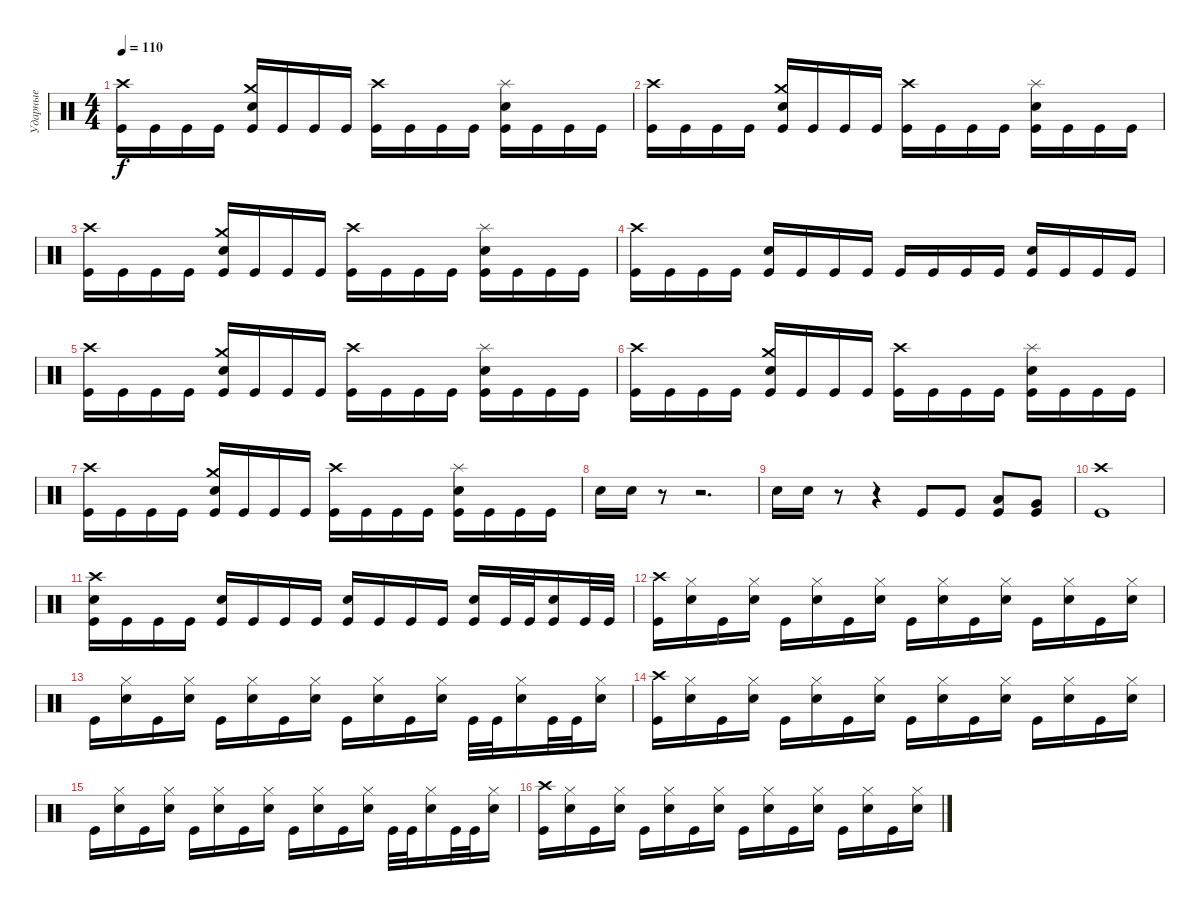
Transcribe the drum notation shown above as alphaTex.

\track ("Ударные" "Ударные") {instrument percussion}
\staff {score}
\articulation defaults
\ts (4 4)
\tempo 110
\clef neutral
\ks c
("Crash high (hit)" "Kick (hit)").16{dy f} "Kick (hit)".16 "Kick (hit)".16 "Kick (hit)".16 ("Crash medium (hit)" "Electric Snare (hit)" "Kick (hit)").16 "Kick (hit)".16 "Kick (hit)".16 "Kick (hit)".16 ("Crash high (hit)" "Kick (hit)").16 "Kick (hit)".16 "Kick (hit)".16 "Kick (hit)".16 ("Splash (hit)" "Electric Snare (hit)" "Kick (hit)").16 "Kick (hit)".16 "Kick (hit)".16 "Kick (hit)".16 |
("Crash high (hit)" "Kick (hit)").16 "Kick (hit)".16 "Kick (hit)".16 "Kick (hit)".16 ("Crash medium (hit)" "Electric Snare (hit)" "Kick (hit)").16 "Kick (hit)".16 "Kick (hit)".16 "Kick (hit)".16 ("Crash high (hit)" "Kick (hit)").16 "Kick (hit)".16 "Kick (hit)".16 "Kick (hit)".16 ("Splash (hit)" "Electric Snare (hit)" "Kick (hit)").16 "Kick (hit)".16 "Kick (hit)".16 "Kick (hit)".16 |
("Crash high (hit)" "Kick (hit)").16 "Kick (hit)".16 "Kick (hit)".16 "Kick (hit)".16 ("Crash medium (hit)" "Electric Snare (hit)" "Kick (hit)").16 "Kick (hit)".16 "Kick (hit)".16 "Kick (hit)".16 ("Crash high (hit)" "Kick (hit)").16 "Kick (hit)".16 "Kick (hit)".16 "Kick (hit)".16 ("Splash (hit)" "Electric Snare (hit)" "Kick (hit)").16 "Kick (hit)".16 "Kick (hit)".16 "Kick (hit)".16 |
("Crash high (hit)" "Kick (hit)").16 "Kick (hit)".16 "Kick (hit)".16 "Kick (hit)".16 ("Electric Snare (hit)" "Kick (hit)").16 "Kick (hit)".16 "Kick (hit)".16 "Kick (hit)".16 "Kick (hit)".16 "Kick (hit)".16 "Kick (hit)".16 "Kick (hit)".16 ("Electric Snare (hit)" "Kick (hit)").16 "Kick (hit)".16 "Kick (hit)".16 "Kick (hit)".16 |
("Crash high (hit)" "Kick (hit)").16 "Kick (hit)".16 "Kick (hit)".16 "Kick (hit)".16 ("Crash medium (hit)" "Electric Snare (hit)" "Kick (hit)").16 "Kick (hit)".16 "Kick (hit)".16 "Kick (hit)".16 ("Crash high (hit)" "Kick (hit)").16 "Kick (hit)".16 "Kick (hit)".16 "Kick (hit)".16 ("Splash (hit)" "Electric Snare (hit)" "Kick (hit)").16 "Kick (hit)".16 "Kick (hit)".16 "Kick (hit)".16 |
("Crash high (hit)" "Kick (hit)").16 "Kick (hit)".16 "Kick (hit)".16 "Kick (hit)".16 ("Crash medium (hit)" "Electric Snare (hit)" "Kick (hit)").16 "Kick (hit)".16 "Kick (hit)".16 "Kick (hit)".16 ("Crash high (hit)" "Kick (hit)").16 "Kick (hit)".16 "Kick (hit)".16 "Kick (hit)".16 ("Splash (hit)" "Electric Snare (hit)" "Kick (hit)").16 "Kick (hit)".16 "Kick (hit)".16 "Kick (hit)".16 |
("Crash high (hit)" "Kick (hit)").16 "Kick (hit)".16 "Kick (hit)".16 "Kick (hit)".16 ("Crash medium (hit)" "Electric Snare (hit)" "Kick (hit)").16 "Kick (hit)".16 "Kick (hit)".16 "Kick (hit)".16 ("Crash high (hit)" "Kick (hit)").16 "Kick (hit)".16 "Kick (hit)".16 "Kick (hit)".16 ("Splash (hit)" "Electric Snare (hit)" "Kick (hit)").16 "Kick (hit)".16 "Kick (hit)".16 "Kick (hit)".16 |
"Electric Snare (hit)".16 "Electric Snare (hit)".16 r.8 r.2{d} |
"Electric Snare (hit)".16 "Electric Snare (hit)".16 r.8 r.4 "Kick (hit)".8 "Kick (hit)".8 ("Low Tom (hit)" "Kick (hit)").8 ("Very Low Tom (hit)" "Kick (hit)").8 |
("Crash high (hit)" "Kick (hit)").1 |
("Crash high (hit)" "Electric Snare (hit)" "Kick (hit)").16 "Kick (hit)".16 "Kick (hit)".16 "Kick (hit)".16 ("Electric Snare (hit)" "Kick (hit)").16 "Kick (hit)".16 "Kick (hit)".16 "Kick (hit)".16 ("Electric Snare (hit)" "Kick (hit)").16 "Kick (hit)".16 "Kick (hit)".16 "Kick (hit)".16 ("Electric Snare (hit)" "Kick (hit)").16 "Kick (hit)".32 "Kick (hit)".32 ("Electric Snare (hit)" "Kick (hit)").16 "Kick (hit)".32 "Kick (hit)".32 |
("Crash high (hit)" "Kick (hit)").16 ("Hi-Hat (closed)" "Electric Snare (hit)").16 "Kick (hit)".16 ("Hi-Hat (closed)" "Electric Snare (hit)").16 "Kick (hit)".16 ("Hi-Hat (closed)" "Electric Snare (hit)").16 "Kick (hit)".16 ("Hi-Hat (closed)" "Electric Snare (hit)").16 "Kick (hit)".16 ("Hi-Hat (closed)" "Electric Snare (hit)").16 "Kick (hit)".16 ("Hi-Hat (closed)" "Electric Snare (hit)").16 "Kick (hit)".16 ("Hi-Hat (closed)" "Electric Snare (hit)").16 "Kick (hit)".16 ("Hi-Hat (closed)" "Electric Snare (hit)").16 |
"Kick (hit)".16 ("Hi-Hat (closed)" "Electric Snare (hit)").16 "Kick (hit)".16 ("Hi-Hat (closed)" "Electric Snare (hit)").16 "Kick (hit)".16 ("Hi-Hat (closed)" "Electric Snare (hit)").16 "Kick (hit)".16 ("Hi-Hat (closed)" "Electric Snare (hit)").16 "Kick (hit)".16 ("Hi-Hat (closed)" "Electric Snare (hit)").16 "Kick (hit)".16 ("Hi-Hat (closed)" "Electric Snare (hit)").16 "Kick (hit)".32 "Kick (hit)".32 ("Hi-Hat (closed)" "Electric Snare (hit)").16 "Kick (hit)".32 "Kick (hit)".32 ("Hi-Hat (closed)" "Electric Snare (hit)").16 |
("Crash high (hit)" "Kick (hit)").16 ("Hi-Hat (closed)" "Electric Snare (hit)").16 "Kick (hit)".16 ("Hi-Hat (closed)" "Electric Snare (hit)").16 "Kick (hit)".16 ("Hi-Hat (closed)" "Electric Snare (hit)").16 "Kick (hit)".16 ("Hi-Hat (closed)" "Electric Snare (hit)").16 "Kick (hit)".16 ("Hi-Hat (closed)" "Electric Snare (hit)").16 "Kick (hit)".16 ("Hi-Hat (closed)" "Electric Snare (hit)").16 "Kick (hit)".16 ("Hi-Hat (closed)" "Electric Snare (hit)").16 "Kick (hit)".16 ("Hi-Hat (closed)" "Electric Snare (hit)").16 |
"Kick (hit)".16 ("Hi-Hat (closed)" "Electric Snare (hit)").16 "Kick (hit)".16 ("Hi-Hat (closed)" "Electric Snare (hit)").16 "Kick (hit)".16 ("Hi-Hat (closed)" "Electric Snare (hit)").16 "Kick (hit)".16 ("Hi-Hat (closed)" "Electric Snare (hit)").16 "Kick (hit)".16 ("Hi-Hat (closed)" "Electric Snare (hit)").16 "Kick (hit)".16 ("Hi-Hat (closed)" "Electric Snare (hit)").16 "Kick (hit)".32 "Kick (hit)".32 ("Hi-Hat (closed)" "Electric Snare (hit)").16 "Kick (hit)".32 "Kick (hit)".32 ("Hi-Hat (closed)" "Electric Snare (hit)").16 |
("Crash high (hit)" "Kick (hit)").16 ("Hi-Hat (closed)" "Electric Snare (hit)").16 "Kick (hit)".16 ("Hi-Hat (closed)" "Electric Snare (hit)").16 "Kick (hit)".16 ("Hi-Hat (closed)" "Electric Snare (hit)").16 "Kick (hit)".16 ("Hi-Hat (closed)" "Electric Snare (hit)").16 "Kick (hit)".16 ("Hi-Hat (closed)" "Electric Snare (hit)").16 "Kick (hit)".16 ("Hi-Hat (closed)" "Electric Snare (hit)").16 "Kick (hit)".16 ("Hi-Hat (closed)" "Electric Snare (hit)").16 "Kick (hit)".16 ("Hi-Hat (closed)" "Electric Snare (hit)").16
